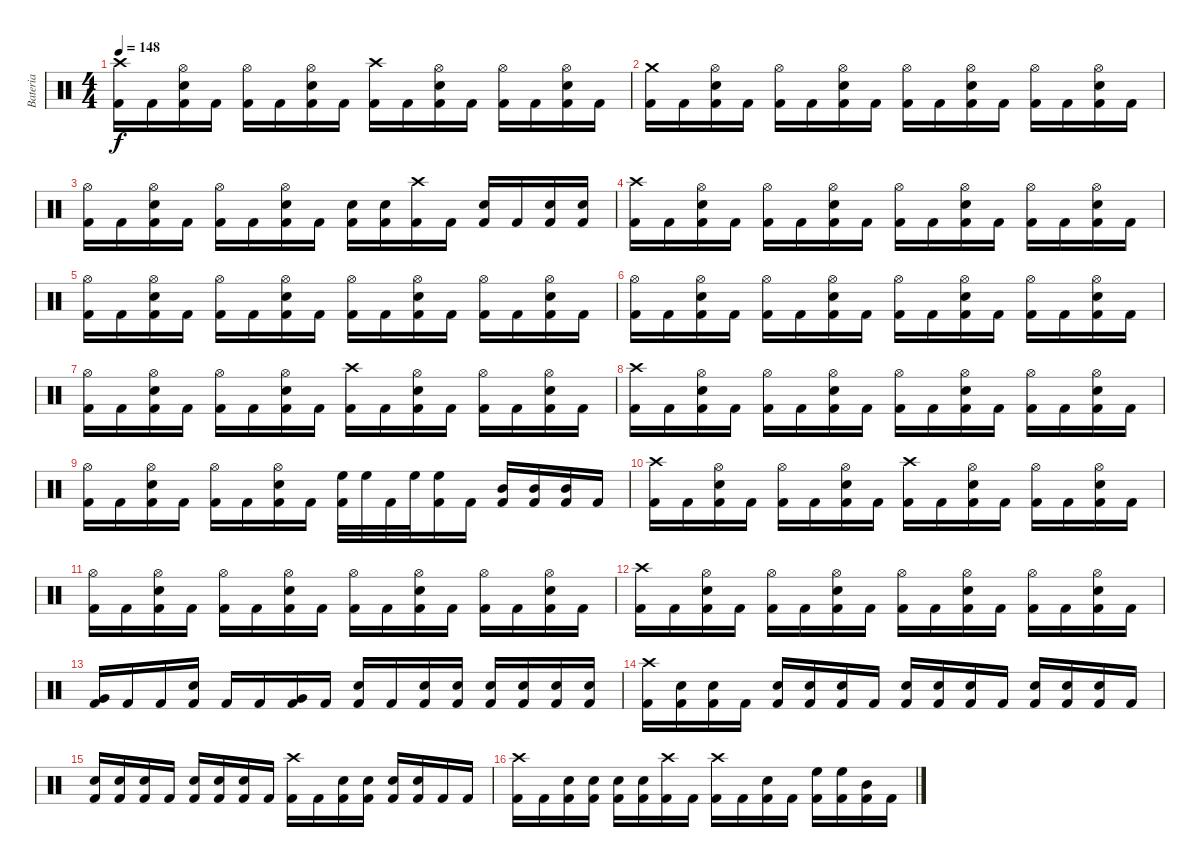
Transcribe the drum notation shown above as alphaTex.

\track ("Bateria" "Bateria") {instrument percussion}
\staff {score}
\articulation defaults
\ts (4 4)
\tempo 148
\clef neutral
\ks c
("Kick (hit) 2" "Crash high (hit)").16{dy f} "Kick (hit) 2".16 ("Kick (hit) 2" "Hi-Hat (open)" "Snare (hit) 2").16 "Kick (hit) 2".16 ("Kick (hit) 2" "Hi-Hat (open)").16 "Kick (hit) 2".16 ("Kick (hit) 2" "Hi-Hat (open)" "Snare (hit) 2").16 "Kick (hit) 2".16 ("Kick (hit) 2" "Crash high (hit)").16 "Kick (hit) 2".16 ("Kick (hit) 2" "Hi-Hat (open)" "Snare (hit) 2").16 "Kick (hit) 2".16 ("Kick (hit) 2" "Hi-Hat (open)").16 "Kick (hit) 2".16 ("Kick (hit) 2" "Hi-Hat (open)" "Snare (hit) 2").16 "Kick (hit) 2".16 |
("Kick (hit) 2" "Crash medium (hit)").16 "Kick (hit) 2".16 ("Kick (hit) 2" "Hi-Hat (open)" "Snare (hit) 2").16 "Kick (hit) 2".16 ("Kick (hit) 2" "Hi-Hat (open)").16 "Kick (hit) 2".16 ("Kick (hit) 2" "Hi-Hat (open)" "Snare (hit) 2").16 "Kick (hit) 2".16 ("Kick (hit) 2" "Hi-Hat (open)").16 "Kick (hit) 2".16 ("Kick (hit) 2" "Hi-Hat (open)" "Snare (hit) 2").16 "Kick (hit) 2".16 ("Kick (hit) 2" "Hi-Hat (open)").16 "Kick (hit) 2".16 ("Kick (hit) 2" "Hi-Hat (open)" "Snare (hit) 2").16 "Kick (hit) 2".16 |
("Kick (hit) 2" "Hi-Hat (open)").16 "Kick (hit) 2".16 ("Kick (hit) 2" "Hi-Hat (open)" "Snare (hit) 2").16 "Kick (hit) 2".16 ("Kick (hit) 2" "Hi-Hat (open)").16 "Kick (hit) 2".16 ("Kick (hit) 2" "Hi-Hat (open)" "Snare (hit) 2").16 "Kick (hit) 2".16 ("Kick (hit) 2" "Snare (hit) 2").16 ("Kick (hit) 2" "Snare (hit) 2").16 ("Kick (hit) 2" "Crash high (hit)").16 "Kick (hit) 2".16 ("Kick (hit) 2" "Snare (hit) 2").16 "Kick (hit) 2".16 ("Kick (hit) 2" "Snare (hit) 2").16 ("Kick (hit) 2" "Snare (hit) 2").16 |
("Kick (hit) 2" "Crash high (hit)").16 "Kick (hit) 2".16 ("Kick (hit) 2" "Hi-Hat (open)" "Snare (hit) 2").16 "Kick (hit) 2".16 ("Kick (hit) 2" "Hi-Hat (open)").16 "Kick (hit) 2".16 ("Kick (hit) 2" "Hi-Hat (open)" "Snare (hit) 2").16 "Kick (hit) 2".16 ("Kick (hit) 2" "Hi-Hat (open)").16 "Kick (hit) 2".16 ("Kick (hit) 2" "Hi-Hat (open)" "Snare (hit) 2").16 "Kick (hit) 2".16 ("Kick (hit) 2" "Hi-Hat (open)").16 "Kick (hit) 2".16 ("Kick (hit) 2" "Hi-Hat (open)" "Snare (hit) 2").16 "Kick (hit) 2".16 |
("Kick (hit) 2" "Hi-Hat (open)").16 "Kick (hit) 2".16 ("Kick (hit) 2" "Hi-Hat (open)" "Snare (hit) 2").16 "Kick (hit) 2".16 ("Kick (hit) 2" "Hi-Hat (open)").16 "Kick (hit) 2".16 ("Kick (hit) 2" "Hi-Hat (open)" "Snare (hit) 2").16 "Kick (hit) 2".16 ("Kick (hit) 2" "Hi-Hat (open)").16 "Kick (hit) 2".16 ("Kick (hit) 2" "Hi-Hat (open)" "Snare (hit) 2").16 "Kick (hit) 2".16 ("Kick (hit) 2" "Hi-Hat (open)").16 "Kick (hit) 2".16 ("Kick (hit) 2" "Hi-Hat (open)" "Snare (hit) 2").16 "Kick (hit) 2".16 |
("Kick (hit) 2" "Hi-Hat (open)").16 "Kick (hit) 2".16 ("Kick (hit) 2" "Hi-Hat (open)" "Snare (hit) 2").16 "Kick (hit) 2".16 ("Kick (hit) 2" "Hi-Hat (open)").16 "Kick (hit) 2".16 ("Kick (hit) 2" "Hi-Hat (open)" "Snare (hit) 2").16 "Kick (hit) 2".16 ("Kick (hit) 2" "Hi-Hat (open)").16 "Kick (hit) 2".16 ("Kick (hit) 2" "Hi-Hat (open)" "Snare (hit) 2").16 "Kick (hit) 2".16 ("Kick (hit) 2" "Hi-Hat (open)").16 "Kick (hit) 2".16 ("Kick (hit) 2" "Hi-Hat (open)" "Snare (hit) 2").16 "Kick (hit) 2".16 |
("Kick (hit) 2" "Hi-Hat (open)").16 "Kick (hit) 2".16 ("Kick (hit) 2" "Hi-Hat (open)" "Snare (hit) 2").16 "Kick (hit) 2".16 ("Kick (hit) 2" "Hi-Hat (open)").16 "Kick (hit) 2".16 ("Kick (hit) 2" "Hi-Hat (open)" "Snare (hit) 2").16 "Kick (hit) 2".16 ("Kick (hit) 2" "Crash high (hit)").16 "Kick (hit) 2".16 ("Kick (hit) 2" "Hi-Hat (open)" "Snare (hit) 2").16 "Kick (hit) 2".16 ("Kick (hit) 2" "Hi-Hat (open)").16 "Kick (hit) 2".16 ("Kick (hit) 2" "Hi-Hat (open)" "Snare (hit) 2").16 "Kick (hit) 2".16 |
("Kick (hit) 2" "Crash high (hit)").16 "Kick (hit) 2".16 ("Kick (hit) 2" "Hi-Hat (open)" "Snare (hit) 2").16 "Kick (hit) 2".16 ("Kick (hit) 2" "Hi-Hat (open)").16 "Kick (hit) 2".16 ("Kick (hit) 2" "Hi-Hat (open)" "Snare (hit) 2").16 "Kick (hit) 2".16 ("Kick (hit) 2" "Hi-Hat (open)").16 "Kick (hit) 2".16 ("Kick (hit) 2" "Hi-Hat (open)" "Snare (hit) 2").16 "Kick (hit) 2".16 ("Kick (hit) 2" "Hi-Hat (open)").16 "Kick (hit) 2".16 ("Kick (hit) 2" "Hi-Hat (open)" "Snare (hit) 2").16 "Kick (hit) 2".16 |
("Kick (hit) 2" "Hi-Hat (open)").16 "Kick (hit) 2".16 ("Kick (hit) 2" "Hi-Hat (open)" "Snare (hit) 2").16 "Kick (hit) 2".16 ("Kick (hit) 2" "Hi-Hat (open)").16 "Kick (hit) 2".16 ("Kick (hit) 2" "Hi-Hat (open)" "Snare (hit) 2").16 "Kick (hit) 2".16 ("Kick (hit) 2" "High Floor Tom (hit)").32 "High Floor Tom (hit)".32 "Kick (hit) 2".32 "High Floor Tom (hit)".32 ("Kick (hit) 2" "High Floor Tom (hit)").16 "Kick (hit) 2".16 ("Kick (hit) 2" "Mid Tom (hit)").16 ("Kick (hit) 2" "Mid Tom (hit)").16 ("Kick (hit) 2" "Mid Tom (hit)").16 "Kick (hit) 2".16 |
("Kick (hit) 2" "Crash high (hit)").16 "Kick (hit) 2".16 ("Kick (hit) 2" "Hi-Hat (open)" "Snare (hit) 2").16 "Kick (hit) 2".16 ("Kick (hit) 2" "Hi-Hat (open)").16 "Kick (hit) 2".16 ("Kick (hit) 2" "Hi-Hat (open)" "Snare (hit) 2").16 "Kick (hit) 2".16 ("Kick (hit) 2" "Crash high (hit)").16 "Kick (hit) 2".16 ("Kick (hit) 2" "Hi-Hat (open)" "Snare (hit) 2").16 "Kick (hit) 2".16 ("Kick (hit) 2" "Hi-Hat (open)").16 "Kick (hit) 2".16 ("Kick (hit) 2" "Hi-Hat (open)" "Snare (hit) 2").16 "Kick (hit) 2".16 |
("Kick (hit) 2" "Hi-Hat (open)").16 "Kick (hit) 2".16 ("Kick (hit) 2" "Hi-Hat (open)" "Snare (hit) 2").16 "Kick (hit) 2".16 ("Kick (hit) 2" "Hi-Hat (open)").16 "Kick (hit) 2".16 ("Kick (hit) 2" "Hi-Hat (open)" "Snare (hit) 2").16 "Kick (hit) 2".16 ("Kick (hit) 2" "Hi-Hat (open)").16 "Kick (hit) 2".16 ("Kick (hit) 2" "Hi-Hat (open)" "Snare (hit) 2").16 "Kick (hit) 2".16 ("Kick (hit) 2" "Hi-Hat (open)").16 "Kick (hit) 2".16 ("Kick (hit) 2" "Hi-Hat (open)" "Snare (hit) 2").16 "Kick (hit) 2".16 |
("Kick (hit) 2" "Crash high (hit)").16 "Kick (hit) 2".16 ("Kick (hit) 2" "Hi-Hat (open)" "Snare (hit) 2").16 "Kick (hit) 2".16 ("Kick (hit) 2" "Hi-Hat (open)").16 "Kick (hit) 2".16 ("Kick (hit) 2" "Hi-Hat (open)" "Snare (hit) 2").16 "Kick (hit) 2".16 ("Kick (hit) 2" "Hi-Hat (open)").16 "Kick (hit) 2".16 ("Kick (hit) 2" "Hi-Hat (open)" "Snare (hit) 2").16 "Kick (hit) 2".16 ("Kick (hit) 2" "Hi-Hat (open)").16 "Kick (hit) 2".16 ("Kick (hit) 2" "Hi-Hat (open)" "Snare (hit) 2").16 "Kick (hit) 2".16 |
("Kick (hit) 2" "Very Low Tom (hit)").16 "Kick (hit) 2".16 "Kick (hit) 2".16 ("Kick (hit) 2" "Snare (hit) 2").16 "Kick (hit) 2".16 "Kick (hit) 2".16 ("Kick (hit) 2" "Very Low Tom (hit)").16 "Kick (hit) 2".16 ("Kick (hit) 2" "Snare (hit) 2").16 "Kick (hit) 2".16 ("Kick (hit) 2" "Snare (hit) 2").16 ("Kick (hit) 2" "Snare (hit) 2").16 ("Kick (hit) 2" "Snare (hit) 2").16 ("Kick (hit) 2" "Snare (hit) 2").16 ("Kick (hit) 2" "Snare (hit) 2").16 ("Kick (hit) 2" "Snare (hit) 2").16 |
("Kick (hit) 2" "Crash high (hit)").16 ("Kick (hit) 2" "Snare (hit) 2").16 ("Kick (hit) 2" "Snare (hit) 2").16 "Kick (hit) 2".16 ("Kick (hit) 2" "Snare (hit) 2").16 ("Kick (hit) 2" "Snare (hit) 2").16 ("Kick (hit) 2" "Snare (hit) 2").16 "Kick (hit) 2".16 ("Kick (hit) 2" "Snare (hit) 2").16 ("Kick (hit) 2" "Snare (hit) 2").16 ("Kick (hit) 2" "Snare (hit) 2").16 "Kick (hit) 2".16 ("Kick (hit) 2" "Snare (hit) 2").16 ("Kick (hit) 2" "Snare (hit) 2").16 ("Kick (hit) 2" "Snare (hit) 2").16 "Kick (hit) 2".16 |
("Kick (hit) 2" "Snare (hit) 2").16 ("Kick (hit) 2" "Snare (hit) 2").16 ("Kick (hit) 2" "Snare (hit) 2").16 "Kick (hit) 2".16 ("Kick (hit) 2" "Snare (hit) 2").16 ("Kick (hit) 2" "Snare (hit) 2").16 ("Kick (hit) 2" "Snare (hit) 2").16 "Kick (hit) 2".16 ("Kick (hit) 2" "Crash high (hit)").16 "Kick (hit) 2".16 ("Kick (hit) 2" "Snare (hit) 2").16 ("Kick (hit) 2" "Snare (hit) 2").16 ("Kick (hit) 2" "Snare (hit) 2").16 ("Kick (hit) 2" "Snare (hit) 2").16 "Kick (hit) 2".16 "Kick (hit) 2".16 |
("Kick (hit) 2" "Crash high (hit)").16 "Kick (hit) 2".16 ("Kick (hit) 2" "Snare (hit) 2").16 ("Kick (hit) 2" "Snare (hit) 2").16 ("Kick (hit) 2" "Snare (hit) 2").16 ("Kick (hit) 2" "Snare (hit) 2").16 ("Kick (hit) 2" "Crash high (hit)").16 "Kick (hit) 2".16 ("Crash high (hit)" "Kick (hit) 2").16 "Kick (hit) 2".16 ("Snare (hit) 2" "Kick (hit) 2").16 "Kick (hit) 2".16 ("High Floor Tom (hit)" "Kick (hit) 2").16 ("High Floor Tom (hit)" "Kick (hit) 2").16 ("Mid Tom (hit)" "Kick (hit) 2").16 "Kick (hit) 2".16
